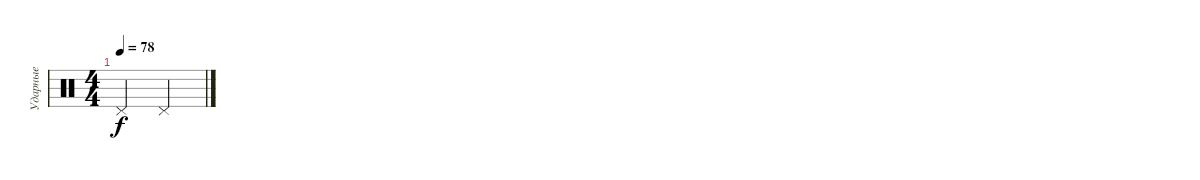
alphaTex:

\track ("Ударные" "Ударные") {mute instrument percussion}
\staff {score}
\articulation defaults
\ts (4 4)
\tempo 78
\clef neutral
\ks c "Pedal Hi-Hat (hit)".2{dy f} "Pedal Hi-Hat (hit)".2
